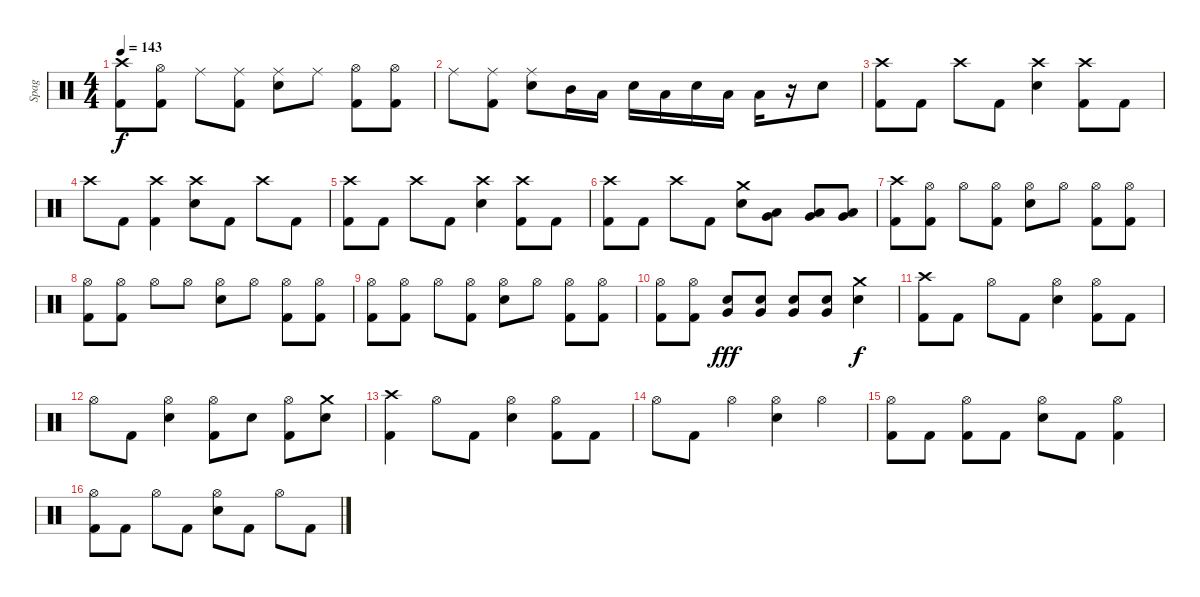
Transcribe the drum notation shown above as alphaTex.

\track ("Spag" "Spag") {instrument percussion}
\staff {score}
\articulation defaults
\ts (4 4)
\tempo 143
\clef neutral
\ks c
("Crash high (hit)" "Kick (hit) 2").8{dy f} ("Hi-Hat (open)" "Kick (hit) 2").8 "Ride (middle)".8 ("Ride (middle)" "Kick (hit) 2").8 ("Ride (middle)" "Electric Snare (hit)").8 "Ride (middle)".8 ("Hi-Hat (open)" "Kick (hit) 2").8 ("Hi-Hat (open)" "Kick (hit) 2").8 |
"Ride (middle)".8 ("Ride (middle)" "Kick (hit) 2").8 ("Ride (middle)" "Electric Snare (hit)").8 "Mid Tom (hit)".16 "Low Tom (hit)".16 "Electric Snare (hit)".16 "Low Tom (hit)".16 "Electric Snare (hit)".16 "Low Tom (hit)".16 "Low Tom (hit)".16 r.16 "Electric Snare (hit)".8 |
("Crash high (hit)" "Kick (hit) 2").8 "Kick (hit) 2".8 "Crash high (hit)".8 "Kick (hit) 2".8 ("Crash high (hit)" "Electric Snare (hit)").4 ("Crash high (hit)" "Kick (hit) 2").8 "Kick (hit) 2".8 |
"Crash high (hit)".8 "Kick (hit) 2".8 ("Crash high (hit)" "Kick (hit) 2").4 ("Crash high (hit)" "Electric Snare (hit)").8 "Kick (hit) 2".8 "Crash high (hit)".8 "Kick (hit) 2".8 |
("Crash high (hit)" "Kick (hit) 2").8 "Kick (hit) 2".8 "Crash high (hit)".8 "Kick (hit) 2".8 ("Crash high (hit)" "Electric Snare (hit)").4 ("Crash high (hit)" "Kick (hit) 2").8 "Kick (hit) 2".8 |
("Crash high (hit)" "Kick (hit) 2").8 "Kick (hit) 2".8 "Crash high (hit)".8 "Kick (hit) 2".8 ("Crash medium (hit)" "Electric Snare (hit)").8 ("Low Tom (hit)" "Very Low Tom (hit)").8 ("Low Tom (hit)" "Very Low Tom (hit)").8 ("Low Tom (hit)" "Very Low Tom (hit)").8 |
("Crash high (hit)" "Kick (hit) 2").8 ("Hi-Hat (open)" "Kick (hit) 2").8 "Hi-Hat (open)".8 ("Hi-Hat (open)" "Kick (hit) 2").8 ("Hi-Hat (open)" "Electric Snare (hit)").8 "Hi-Hat (open)".8 ("Hi-Hat (open)" "Kick (hit) 2").8 ("Hi-Hat (open)" "Kick (hit) 2").8 |
("Hi-Hat (open)" "Kick (hit) 2").8 ("Hi-Hat (open)" "Kick (hit) 2").8 "Hi-Hat (open)".8 "Hi-Hat (open)".8 ("Hi-Hat (open)" "Electric Snare (hit)").8 "Hi-Hat (open)".8 ("Hi-Hat (open)" "Kick (hit) 2").8 ("Hi-Hat (open)" "Kick (hit) 2").8 |
("Hi-Hat (open)" "Kick (hit) 2").8 ("Hi-Hat (open)" "Kick (hit) 2").8 "Hi-Hat (open)".8 ("Hi-Hat (open)" "Kick (hit) 2").8 ("Hi-Hat (open)" "Electric Snare (hit)").8 "Hi-Hat (open)".8 ("Hi-Hat (open)" "Kick (hit) 2").8 ("Hi-Hat (open)" "Kick (hit) 2").8 |
("Hi-Hat (open)" "Kick (hit) 2").8 ("Hi-Hat (open)" "Kick (hit) 2").8 ("Electric Snare (hit)" "Very Low Tom (hit)").8{dy fff} ("Electric Snare (hit)" "Very Low Tom (hit)").8 ("Electric Snare (hit)" "Very Low Tom (hit)").8 ("Electric Snare (hit)" "Very Low Tom (hit)").8 ("Crash medium (hit)" "Electric Snare (hit)").4{dy f} |
("Crash high (hit)" "Kick (hit) 2").8 "Kick (hit) 2".8 "Hi-Hat (open)".8 "Kick (hit) 2".8 ("Hi-Hat (open)" "Electric Snare (hit)").4 ("Hi-Hat (open)" "Kick (hit) 2").8 "Kick (hit) 2".8 |
"Hi-Hat (open)".8 "Kick (hit) 2".8 ("Hi-Hat (open)" "Electric Snare (hit)").4 ("Hi-Hat (open)" "Kick (hit) 2").8 "Electric Snare (hit)".8 ("Hi-Hat (open)" "Kick (hit) 2").8 ("Crash medium (hit)" "Electric Snare (hit)").8 |
("Crash high (hit)" "Kick (hit) 2").4 "Hi-Hat (open)".8 "Kick (hit) 2".8 ("Hi-Hat (open)" "Electric Snare (hit)").4 ("Hi-Hat (open)" "Kick (hit) 2").8 "Kick (hit) 2".8 |
"Hi-Hat (open)".8 "Kick (hit) 2".8 "Hi-Hat (open)".4 ("Hi-Hat (open)" "Electric Snare (hit)").4 "Hi-Hat (open)".4 |
("Hi-Hat (open)" "Kick (hit) 2").8 "Kick (hit) 2".8 ("Hi-Hat (open)" "Kick (hit) 2").8 "Kick (hit) 2".8 ("Hi-Hat (open)" "Electric Snare (hit)").8 "Kick (hit) 2".8 ("Hi-Hat (open)" "Kick (hit) 2").4 |
("Hi-Hat (open)" "Kick (hit) 2").8 "Kick (hit) 2".8 "Hi-Hat (open)".8 "Kick (hit) 2".8 ("Hi-Hat (open)" "Electric Snare (hit)").8 "Kick (hit) 2".8 "Hi-Hat (open)".8 "Kick (hit) 2".8
